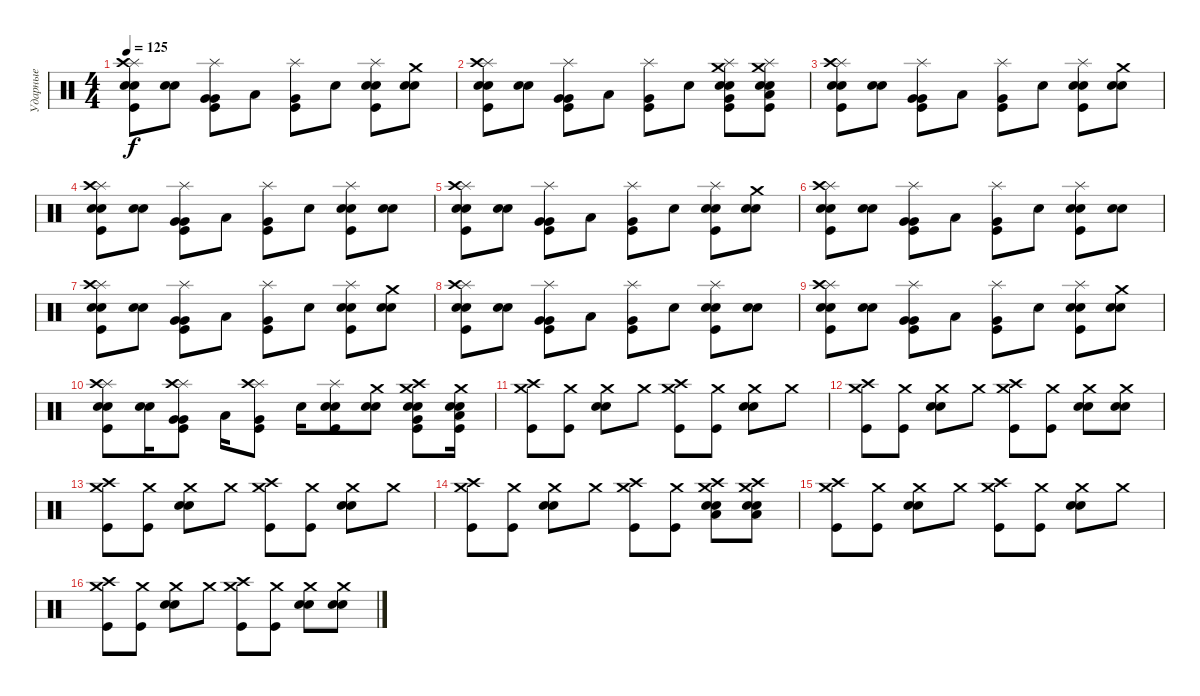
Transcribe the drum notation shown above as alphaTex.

\track ("Ударные" "Ударные") {instrument percussion}
\staff {score}
\articulation defaults
\ts (4 4)
\tempo 125
\clef neutral
\ks c
("Splash (hit)" "Crash high (hit)" "Snare (hit) 2" "Snare (hit) 2" "Kick (hit)").8{dy f} ("Electric Snare (hit)" "Electric Snare (hit)").8 ("Splash (hit)" "Very Low Tom (hit)" "Very Low Tom (hit)" "Kick (hit)").8 "Low Floor Tom (hit)".8 ("Splash (hit)" "Very Low Tom (hit)" "Kick (hit)").8 "Snare (hit) 2".8 ("Splash (hit)" "Electric Snare (hit)" "Electric Snare (hit)" "Kick (hit)").8 ("Crash medium (hit)" "Snare (hit) 2" "Snare (hit) 2").8 |
("Splash (hit)" "Crash high (hit)" "Snare (hit) 2" "Snare (hit) 2" "Kick (hit)").8 ("Electric Snare (hit)" "Electric Snare (hit)").8 ("Splash (hit)" "Very Low Tom (hit)" "Very Low Tom (hit)" "Kick (hit)").8 "Low Floor Tom (hit)".8 ("Splash (hit)" "Very Low Tom (hit)" "Kick (hit)").8 "Snare (hit) 2".8 ("Splash (hit)" "Crash medium (hit)" "Electric Snare (hit)" "Electric Snare (hit)" "Very Low Tom (hit)" "Kick (hit)").8 ("Splash (hit)" "Crash medium (hit)" "Snare (hit) 2" "Snare (hit) 2" "Low Floor Tom (hit)" "Kick (hit)").8 |
("Splash (hit)" "Crash high (hit)" "Snare (hit) 2" "Snare (hit) 2" "Kick (hit)").8 ("Electric Snare (hit)" "Electric Snare (hit)").8 ("Splash (hit)" "Very Low Tom (hit)" "Very Low Tom (hit)" "Kick (hit)").8 "Low Floor Tom (hit)".8 ("Splash (hit)" "Very Low Tom (hit)" "Kick (hit)").8 "Snare (hit) 2".8 ("Splash (hit)" "Electric Snare (hit)" "Electric Snare (hit)" "Kick (hit)").8 ("Crash medium (hit)" "Snare (hit) 2" "Snare (hit) 2").8 |
("Splash (hit)" "Crash high (hit)" "Snare (hit) 2" "Snare (hit) 2" "Kick (hit)").8 ("Electric Snare (hit)" "Electric Snare (hit)").8 ("Splash (hit)" "Very Low Tom (hit)" "Very Low Tom (hit)" "Kick (hit)").8 "Low Floor Tom (hit)".8 ("Splash (hit)" "Very Low Tom (hit)" "Kick (hit)").8 "Snare (hit) 2".8 ("Splash (hit)" "Electric Snare (hit)" "Electric Snare (hit)" "Kick (hit)").8 ("Snare (hit) 2" "Snare (hit) 2").8 |
("Splash (hit)" "Crash high (hit)" "Snare (hit) 2" "Snare (hit) 2" "Kick (hit)").8 ("Electric Snare (hit)" "Electric Snare (hit)").8 ("Splash (hit)" "Very Low Tom (hit)" "Very Low Tom (hit)" "Kick (hit)").8 "Low Floor Tom (hit)".8 ("Splash (hit)" "Very Low Tom (hit)" "Kick (hit)").8 "Snare (hit) 2".8 ("Splash (hit)" "Electric Snare (hit)" "Electric Snare (hit)" "Kick (hit)").8 ("Crash medium (hit)" "Snare (hit) 2" "Snare (hit) 2").8 |
("Splash (hit)" "Crash high (hit)" "Snare (hit) 2" "Snare (hit) 2" "Kick (hit)").8 ("Electric Snare (hit)" "Electric Snare (hit)").8 ("Splash (hit)" "Very Low Tom (hit)" "Very Low Tom (hit)" "Kick (hit)").8 "Low Floor Tom (hit)".8 ("Splash (hit)" "Very Low Tom (hit)" "Kick (hit)").8 "Snare (hit) 2".8 ("Splash (hit)" "Electric Snare (hit)" "Electric Snare (hit)" "Kick (hit)").8 ("Snare (hit) 2" "Snare (hit) 2").8 |
("Splash (hit)" "Crash high (hit)" "Snare (hit) 2" "Snare (hit) 2" "Kick (hit)").8 ("Electric Snare (hit)" "Electric Snare (hit)").8 ("Splash (hit)" "Very Low Tom (hit)" "Very Low Tom (hit)" "Kick (hit)").8 "Low Floor Tom (hit)".8 ("Splash (hit)" "Very Low Tom (hit)" "Kick (hit)").8 "Snare (hit) 2".8 ("Splash (hit)" "Electric Snare (hit)" "Electric Snare (hit)" "Kick (hit)").8 ("Crash medium (hit)" "Snare (hit) 2" "Snare (hit) 2").8 |
("Splash (hit)" "Crash high (hit)" "Snare (hit) 2" "Snare (hit) 2" "Kick (hit)").8 ("Electric Snare (hit)" "Electric Snare (hit)").8 ("Splash (hit)" "Very Low Tom (hit)" "Very Low Tom (hit)" "Kick (hit)").8 "Low Floor Tom (hit)".8 ("Splash (hit)" "Very Low Tom (hit)" "Kick (hit)").8 "Snare (hit) 2".8 ("Splash (hit)" "Electric Snare (hit)" "Electric Snare (hit)" "Kick (hit)").8 ("Snare (hit) 2" "Snare (hit) 2").8 |
("Splash (hit)" "Crash high (hit)" "Snare (hit) 2" "Snare (hit) 2" "Kick (hit)").8 ("Electric Snare (hit)" "Electric Snare (hit)").8 ("Splash (hit)" "Very Low Tom (hit)" "Very Low Tom (hit)" "Kick (hit)").8 "Low Floor Tom (hit)".8 ("Splash (hit)" "Very Low Tom (hit)" "Kick (hit)").8 "Snare (hit) 2".8 ("Splash (hit)" "Electric Snare (hit)" "Electric Snare (hit)" "Kick (hit)").8 ("Crash medium (hit)" "Snare (hit) 2" "Snare (hit) 2").8 |
("Splash (hit)" "Crash high (hit)" "Snare (hit) 2" "Snare (hit) 2" "Kick (hit)").8 ("Electric Snare (hit)" "Electric Snare (hit)").16 ("Splash (hit)" "Crash high (hit)" "Very Low Tom (hit)" "Very Low Tom (hit)" "Kick (hit)").8 "Low Floor Tom (hit)".16 ("Splash (hit)" "Crash high (hit)" "Very Low Tom (hit)" "Kick (hit)").8 "Snare (hit) 2".16 ("Splash (hit)" "Electric Snare (hit)" "Electric Snare (hit)" "Kick (hit)").8 ("Crash medium (hit)" "Snare (hit) 2" "Snare (hit) 2").8 ("Crash medium (hit)" "Crash high (hit)" "Snare (hit) 2" "Electric Snare (hit)" "Very Low Tom (hit)" "Kick (hit)").8 ("Crash medium (hit)" "Electric Snare (hit)" "Electric Snare (hit)" "Low Floor Tom (hit)" "Kick (hit)").16 |
("Crash medium (hit)" "Crash high (hit)" "Kick (hit)").8 ("Crash medium (hit)" "Kick (hit)").8 ("Crash medium (hit)" "Snare (hit) 2" "Snare (hit) 2").8 "Crash medium (hit)".8 ("Crash medium (hit)" "Crash high (hit)" "Kick (hit)").8 ("Crash medium (hit)" "Kick (hit)").8 ("Crash medium (hit)" "Snare (hit) 2" "Snare (hit) 2").8 "Crash medium (hit)".8 |
("Crash medium (hit)" "Crash high (hit)" "Kick (hit)").8 ("Crash medium (hit)" "Kick (hit)").8 ("Crash medium (hit)" "Snare (hit) 2" "Snare (hit) 2").8 "Crash medium (hit)".8 ("Crash medium (hit)" "Crash high (hit)" "Kick (hit)").8 ("Crash medium (hit)" "Kick (hit)").8 ("Crash medium (hit)" "Snare (hit) 2" "Snare (hit) 2").8 ("Crash medium (hit)" "Snare (hit) 2" "Snare (hit) 2").8 |
("Crash medium (hit)" "Crash high (hit)" "Kick (hit)").8 ("Crash medium (hit)" "Kick (hit)").8 ("Crash medium (hit)" "Snare (hit) 2" "Snare (hit) 2").8 "Crash medium (hit)".8 ("Crash medium (hit)" "Crash high (hit)" "Kick (hit)").8 ("Crash medium (hit)" "Kick (hit)").8 ("Crash medium (hit)" "Snare (hit) 2" "Snare (hit) 2").8 "Crash medium (hit)".8 |
("Crash medium (hit)" "Crash high (hit)" "Kick (hit)").8 ("Crash medium (hit)" "Kick (hit)").8 ("Crash medium (hit)" "Snare (hit) 2" "Snare (hit) 2").8 "Crash medium (hit)".8 ("Crash medium (hit)" "Crash high (hit)" "Kick (hit)").8 ("Crash medium (hit)" "Kick (hit)").8 ("Crash medium (hit)" "Crash high (hit)" "Low Floor Tom (hit)" "Snare (hit) 2" "Snare (hit) 2").8 ("Crash medium (hit)" "Crash high (hit)" "Low Floor Tom (hit)" "Snare (hit) 2" "Snare (hit) 2").8 |
("Crash medium (hit)" "Crash high (hit)" "Kick (hit)").8 ("Crash medium (hit)" "Kick (hit)").8 ("Crash medium (hit)" "Snare (hit) 2" "Snare (hit) 2").8 "Crash medium (hit)".8 ("Crash medium (hit)" "Crash high (hit)" "Kick (hit)").8 ("Crash medium (hit)" "Kick (hit)").8 ("Crash medium (hit)" "Snare (hit) 2" "Snare (hit) 2").8 "Crash medium (hit)".8 |
("Crash medium (hit)" "Crash high (hit)" "Kick (hit)").8 ("Crash medium (hit)" "Kick (hit)").8 ("Crash medium (hit)" "Snare (hit) 2" "Snare (hit) 2").8 "Crash medium (hit)".8 ("Crash medium (hit)" "Crash high (hit)" "Kick (hit)").8 ("Crash medium (hit)" "Kick (hit)").8 ("Crash medium (hit)" "Snare (hit) 2" "Snare (hit) 2").8 ("Crash medium (hit)" "Snare (hit) 2" "Snare (hit) 2").8
